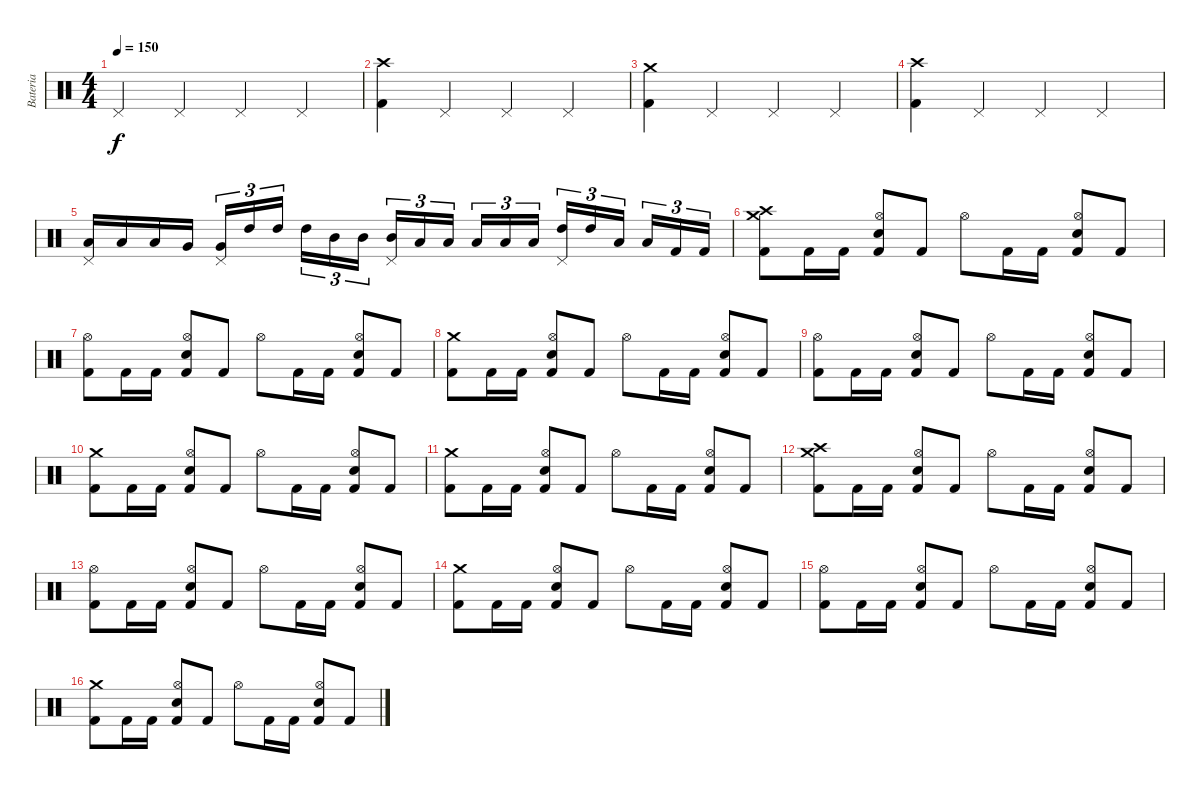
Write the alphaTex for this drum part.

\track ("Bateria" "Bateria") {instrument percussion}
\staff {score}
\articulation defaults
\ts (4 4)
\tempo 150
\clef neutral
\ks c "Pedal Hi-Hat (hit)".4{dy f} "Pedal Hi-Hat (hit)".4 "Pedal Hi-Hat (hit)".4 "Pedal Hi-Hat (hit)".4
|
("Crash high (hit)" "Kick (hit) 2").4 "Pedal Hi-Hat (hit)".4 "Pedal Hi-Hat (hit)".4 "Pedal Hi-Hat (hit)".4 |
("Crash medium (hit)" "Kick (hit) 2").4 "Pedal Hi-Hat (hit)".4 "Pedal Hi-Hat (hit)".4 "Pedal Hi-Hat (hit)".4 |
("Crash high (hit)" "Kick (hit) 2").4 "Pedal Hi-Hat (hit)".4 "Pedal Hi-Hat (hit)".4 "Pedal Hi-Hat (hit)".4 |
("Low Tom (hit)" "Pedal Hi-Hat (hit)").16 "Low Tom (hit)".16 "Low Tom (hit)".16 "Very Low Tom (hit)".16 ("Very Low Tom (hit)" "Pedal Hi-Hat (hit)").16{tu (3 2)} "High Tom (hit)".16{tu (3 2)} "High Tom (hit)".16{tu (3 2)} "High Tom (hit)".16{tu (3 2)} "Mid Tom (hit)".16{tu (3 2)} "Mid Tom (hit)".16{tu (3 2)} ("Mid Tom (hit)" "Pedal Hi-Hat (hit)").16{tu (3 2)} "Low Tom (hit)".16{tu (3 2)} "Low Tom (hit)".16{tu (3 2)} "Low Tom (hit)".16{tu (3 2)} "Low Tom (hit)".16{tu (3 2)} "Low Tom (hit)".16{tu (3 2)} ("High Tom (hit)" "Pedal Hi-Hat (hit)").16{tu (3 2)} "High Tom (hit)".16{tu (3 2)} "Low Tom (hit)".16{tu (3 2)} "Low Tom (hit)".16{tu (3 2)} "Kick (hit) 2".16{tu (3 2)} "Kick (hit) 2".16{tu (3 2)} |
("Crash high (hit)" "Crash medium (hit)" "Kick (hit) 2").8 "Kick (hit) 2".16 "Kick (hit) 2".16 ("Hi-Hat (open)" "Snare (hit) 2" "Kick (hit) 2").8 "Kick (hit) 2".8 "Hi-Hat (open)".8 "Kick (hit) 2".16 "Kick (hit) 2".16 ("Hi-Hat (open)" "Snare (hit) 2" "Kick (hit) 2").8 "Kick (hit) 2".8 |
("Hi-Hat (open)" "Kick (hit) 2").8 "Kick (hit) 2".16 "Kick (hit) 2".16 ("Hi-Hat (open)" "Snare (hit) 2" "Kick (hit) 2").8 "Kick (hit) 2".8 "Hi-Hat (open)".8 "Kick (hit) 2".16 "Kick (hit) 2".16 ("Hi-Hat (open)" "Snare (hit) 2" "Kick (hit) 2").8 "Kick (hit) 2".8 |
("Crash medium (hit)" "Kick (hit) 2").8 "Kick (hit) 2".16 "Kick (hit) 2".16 ("Hi-Hat (open)" "Snare (hit) 2" "Kick (hit) 2").8 "Kick (hit) 2".8 "Hi-Hat (open)".8 "Kick (hit) 2".16 "Kick (hit) 2".16 ("Hi-Hat (open)" "Snare (hit) 2" "Kick (hit) 2").8 "Kick (hit) 2".8 |
("Hi-Hat (open)" "Kick (hit) 2").8 "Kick (hit) 2".16 "Kick (hit) 2".16 ("Hi-Hat (open)" "Snare (hit) 2" "Kick (hit) 2").8 "Kick (hit) 2".8 "Hi-Hat (open)".8 "Kick (hit) 2".16 "Kick (hit) 2".16 ("Hi-Hat (open)" "Snare (hit) 2" "Kick (hit) 2").8 "Kick (hit) 2".8 |
("Crash medium (hit)" "Kick (hit) 2").8 "Kick (hit) 2".16 "Kick (hit) 2".16 ("Hi-Hat (open)" "Snare (hit) 2" "Kick (hit) 2").8 "Kick (hit) 2".8 "Hi-Hat (open)".8 "Kick (hit) 2".16 "Kick (hit) 2".16 ("Hi-Hat (open)" "Snare (hit) 2" "Kick (hit) 2").8 "Kick (hit) 2".8 |
("Crash medium (hit)" "Kick (hit) 2").8 "Kick (hit) 2".16 "Kick (hit) 2".16 ("Hi-Hat (open)" "Snare (hit) 2" "Kick (hit) 2").8 "Kick (hit) 2".8 "Hi-Hat (open)".8 "Kick (hit) 2".16 "Kick (hit) 2".16 ("Hi-Hat (open)" "Snare (hit) 2" "Kick (hit) 2").8 "Kick (hit) 2".8 |
("Crash high (hit)" "Crash medium (hit)" "Kick (hit) 2").8 "Kick (hit) 2".16 "Kick (hit) 2".16 ("Hi-Hat (open)" "Snare (hit) 2" "Kick (hit) 2").8 "Kick (hit) 2".8 "Hi-Hat (open)".8 "Kick (hit) 2".16 "Kick (hit) 2".16 ("Hi-Hat (open)" "Snare (hit) 2" "Kick (hit) 2").8 "Kick (hit) 2".8 |
("Hi-Hat (open)" "Kick (hit) 2").8 "Kick (hit) 2".16 "Kick (hit) 2".16 ("Hi-Hat (open)" "Snare (hit) 2" "Kick (hit) 2").8 "Kick (hit) 2".8 "Hi-Hat (open)".8 "Kick (hit) 2".16 "Kick (hit) 2".16 ("Hi-Hat (open)" "Snare (hit) 2" "Kick (hit) 2").8 "Kick (hit) 2".8 |
("Crash medium (hit)" "Kick (hit) 2").8 "Kick (hit) 2".16 "Kick (hit) 2".16 ("Hi-Hat (open)" "Snare (hit) 2" "Kick (hit) 2").8 "Kick (hit) 2".8 "Hi-Hat (open)".8 "Kick (hit) 2".16 "Kick (hit) 2".16 ("Hi-Hat (open)" "Snare (hit) 2" "Kick (hit) 2").8 "Kick (hit) 2".8 |
("Hi-Hat (open)" "Kick (hit) 2").8 "Kick (hit) 2".16 "Kick (hit) 2".16 ("Hi-Hat (open)" "Snare (hit) 2" "Kick (hit) 2").8 "Kick (hit) 2".8 "Hi-Hat (open)".8 "Kick (hit) 2".16 "Kick (hit) 2".16 ("Hi-Hat (open)" "Snare (hit) 2" "Kick (hit) 2").8 "Kick (hit) 2".8 |
("Crash medium (hit)" "Kick (hit) 2").8 "Kick (hit) 2".16 "Kick (hit) 2".16 ("Hi-Hat (open)" "Snare (hit) 2" "Kick (hit) 2").8 "Kick (hit) 2".8 "Hi-Hat (open)".8 "Kick (hit) 2".16 "Kick (hit) 2".16 ("Hi-Hat (open)" "Snare (hit) 2" "Kick (hit) 2").8 "Kick (hit) 2".8
